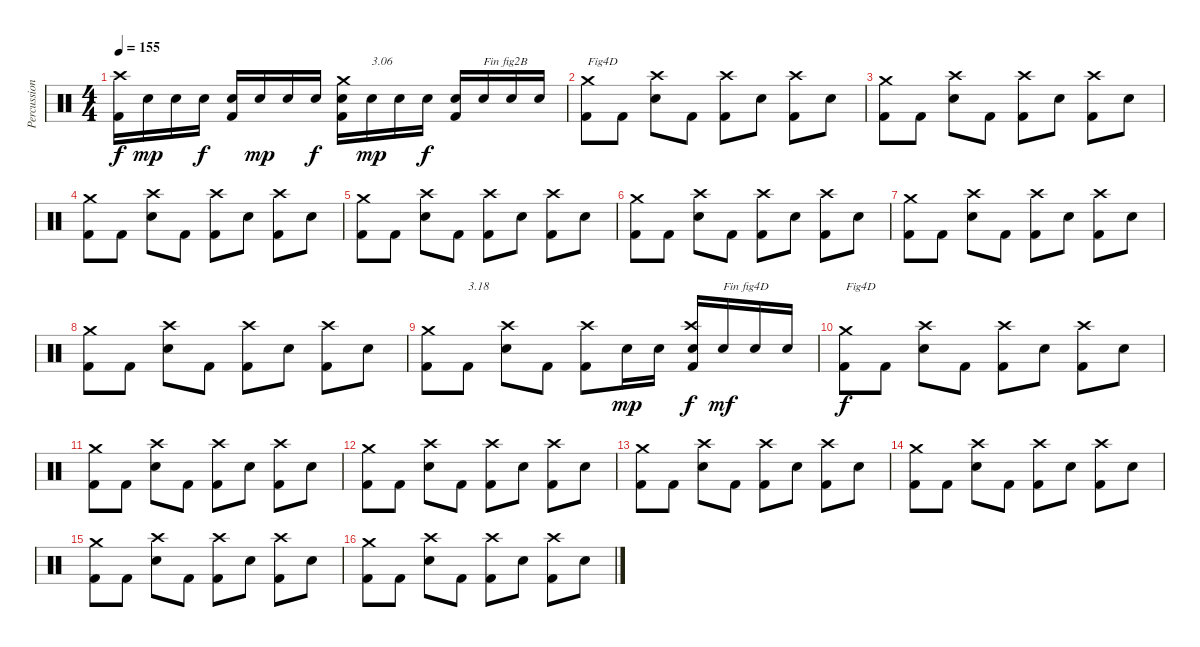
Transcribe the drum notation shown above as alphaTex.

\track ("Percussions" "Percussion") {instrument percussion}
\staff {score}
\articulation defaults
\ts (4 4)
\tempo 155
\clef neutral
\ks c
("Kick (hit) 2" "Crash high (hit)").16{dy f} "Electric Snare (hit)".16{dy mp} "Electric Snare (hit)".16 "Electric Snare (hit)".16{dy f} ("Kick (hit) 2" "Electric Snare (hit)").16 "Electric Snare (hit)".16{dy mp} "Electric Snare (hit)".16 "Electric Snare (hit)".16{dy f} ("Kick (hit) 2" "Electric Snare (hit)" "Crash medium (hit)").16 "Electric Snare (hit)".16{txt "3.06" dy mp} "Electric Snare (hit)".16 "Electric Snare (hit)".16{dy f} ("Kick (hit) 2" "Electric Snare (hit)").16 "Electric Snare (hit)".16{txt "Fin fig2B"} "Electric Snare (hit)".16 "Electric Snare (hit)".16 |
("Kick (hit) 2" "Crash medium (hit)").8{txt "Fig4D"} "Kick (hit) 2".8 ("Electric Snare (hit)" "Crash high (hit)").8 "Kick (hit) 2".8 ("Kick (hit) 2" "Crash high (hit)").8 "Electric Snare (hit)".8 ("Kick (hit) 2" "Crash high (hit)").8 "Electric Snare (hit)".8 |
("Kick (hit) 2" "Crash medium (hit)").8 "Kick (hit) 2".8 ("Electric Snare (hit)" "Crash high (hit)").8 "Kick (hit) 2".8 ("Kick (hit) 2" "Crash high (hit)").8 "Electric Snare (hit)".8 ("Kick (hit) 2" "Crash high (hit)").8 "Electric Snare (hit)".8 |
("Kick (hit) 2" "Crash medium (hit)").8 "Kick (hit) 2".8 ("Electric Snare (hit)" "Crash high (hit)").8 "Kick (hit) 2".8 ("Kick (hit) 2" "Crash high (hit)").8 "Electric Snare (hit)".8 ("Kick (hit) 2" "Crash high (hit)").8 "Electric Snare (hit)".8 |
("Kick (hit) 2" "Crash medium (hit)").8 "Kick (hit) 2".8 ("Electric Snare (hit)" "Crash high (hit)").8 "Kick (hit) 2".8 ("Kick (hit) 2" "Crash high (hit)").8 "Electric Snare (hit)".8 ("Kick (hit) 2" "Crash high (hit)").8 "Electric Snare (hit)".8 |
("Kick (hit) 2" "Crash medium (hit)").8 "Kick (hit) 2".8 ("Electric Snare (hit)" "Crash high (hit)").8 "Kick (hit) 2".8 ("Kick (hit) 2" "Crash high (hit)").8 "Electric Snare (hit)".8 ("Kick (hit) 2" "Crash high (hit)").8 "Electric Snare (hit)".8 |
("Kick (hit) 2" "Crash medium (hit)").8 "Kick (hit) 2".8 ("Electric Snare (hit)" "Crash high (hit)").8 "Kick (hit) 2".8 ("Kick (hit) 2" "Crash high (hit)").8 "Electric Snare (hit)".8 ("Kick (hit) 2" "Crash high (hit)").8 "Electric Snare (hit)".8 |
("Kick (hit) 2" "Crash medium (hit)").8 "Kick (hit) 2".8 ("Electric Snare (hit)" "Crash high (hit)").8 "Kick (hit) 2".8 ("Kick (hit) 2" "Crash high (hit)").8 "Electric Snare (hit)".8 ("Kick (hit) 2" "Crash high (hit)").8 "Electric Snare (hit)".8 |
("Kick (hit) 2" "Crash medium (hit)").8 "Kick (hit) 2".8{txt "3.18"} ("Electric Snare (hit)" "Crash high (hit)").8 "Kick (hit) 2".8 ("Kick (hit) 2" "Crash high (hit)").8 "Electric Snare (hit)".16{dy mp} "Electric Snare (hit)".16 ("Kick (hit) 2" "Electric Snare (hit)" "Crash high (hit)").16{dy f} "Electric Snare (hit)".16{txt "Fin fig4D" dy mf} "Electric Snare (hit)".16 "Electric Snare (hit)".16 |
("Kick (hit) 2" "Crash medium (hit)").8{txt "Fig4D" dy f} "Kick (hit) 2".8 ("Electric Snare (hit)" "Crash high (hit)").8 "Kick (hit) 2".8 ("Kick (hit) 2" "Crash high (hit)").8 "Electric Snare (hit)".8 ("Kick (hit) 2" "Crash high (hit)").8 "Electric Snare (hit)".8 |
("Kick (hit) 2" "Crash medium (hit)").8 "Kick (hit) 2".8 ("Electric Snare (hit)" "Crash high (hit)").8 "Kick (hit) 2".8 ("Kick (hit) 2" "Crash high (hit)").8 "Electric Snare (hit)".8 ("Kick (hit) 2" "Crash high (hit)").8 "Electric Snare (hit)".8 |
("Kick (hit) 2" "Crash medium (hit)").8 "Kick (hit) 2".8 ("Electric Snare (hit)" "Crash high (hit)").8 "Kick (hit) 2".8 ("Kick (hit) 2" "Crash high (hit)").8 "Electric Snare (hit)".8 ("Kick (hit) 2" "Crash high (hit)").8 "Electric Snare (hit)".8 |
("Kick (hit) 2" "Crash medium (hit)").8 "Kick (hit) 2".8 ("Electric Snare (hit)" "Crash high (hit)").8 "Kick (hit) 2".8 ("Kick (hit) 2" "Crash high (hit)").8 "Electric Snare (hit)".8 ("Kick (hit) 2" "Crash high (hit)").8 "Electric Snare (hit)".8 |
("Kick (hit) 2" "Crash medium (hit)").8 "Kick (hit) 2".8 ("Electric Snare (hit)" "Crash high (hit)").8 "Kick (hit) 2".8 ("Kick (hit) 2" "Crash high (hit)").8 "Electric Snare (hit)".8 ("Kick (hit) 2" "Crash high (hit)").8 "Electric Snare (hit)".8 |
("Kick (hit) 2" "Crash medium (hit)").8 "Kick (hit) 2".8 ("Electric Snare (hit)" "Crash high (hit)").8 "Kick (hit) 2".8 ("Kick (hit) 2" "Crash high (hit)").8 "Electric Snare (hit)".8 ("Kick (hit) 2" "Crash high (hit)").8 "Electric Snare (hit)".8 |
("Kick (hit) 2" "Crash medium (hit)").8 "Kick (hit) 2".8 ("Electric Snare (hit)" "Crash high (hit)").8 "Kick (hit) 2".8 ("Kick (hit) 2" "Crash high (hit)").8 "Electric Snare (hit)".8 ("Kick (hit) 2" "Crash high (hit)").8 "Electric Snare (hit)".8
